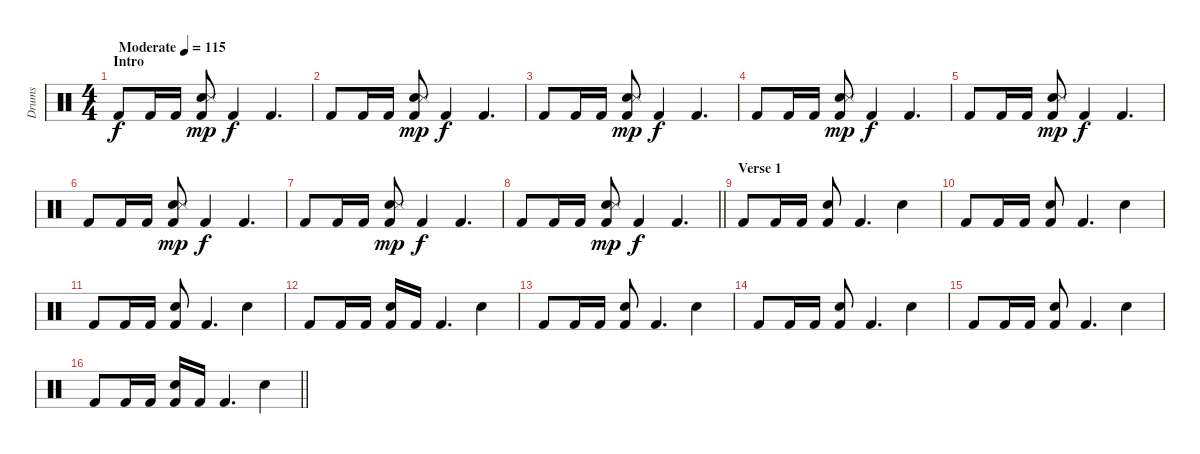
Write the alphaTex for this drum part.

\track ("Drums" "Drums") {instrument percussion}
\staff {score}
\articulation defaults
\ts (4 4)
\section ("" "Intro")
\tempo (115 "Moderate")
\clef neutral
\ks c "Kick (hit) 2".8{dy f} "Kick (hit) 2".16 "Kick (hit) 2".16
("Hand Clap (hit)" "Snare (side stick) 3" "Kick (hit) 2").8{dy mp} "Kick (hit) 2".4{dy f} "Kick (hit) 2".4{d} |
"Kick (hit) 2".8 "Kick (hit) 2".16 "Kick (hit) 2".16 ("Hand Clap (hit)" "Snare (side stick) 3" "Kick (hit) 2").8{dy mp} "Kick (hit) 2".4{dy f} "Kick (hit) 2".4{d} |
"Kick (hit) 2".8 "Kick (hit) 2".16 "Kick (hit) 2".16 ("Hand Clap (hit)" "Snare (side stick) 3" "Kick (hit) 2").8{dy mp} "Kick (hit) 2".4{dy f} "Kick (hit) 2".4{d} |
"Kick (hit) 2".8 "Kick (hit) 2".16 "Kick (hit) 2".16 ("Hand Clap (hit)" "Snare (side stick) 3" "Kick (hit) 2").8{dy mp} "Kick (hit) 2".4{dy f} "Kick (hit) 2".4{d} |
"Kick (hit) 2".8 "Kick (hit) 2".16 "Kick (hit) 2".16 ("Hand Clap (hit)" "Snare (side stick) 3" "Kick (hit) 2").8{dy mp} "Kick (hit) 2".4{dy f} "Kick (hit) 2".4{d} |
"Kick (hit) 2".8 "Kick (hit) 2".16 "Kick (hit) 2".16 ("Hand Clap (hit)" "Snare (side stick) 3" "Kick (hit) 2").8{dy mp} "Kick (hit) 2".4{dy f} "Kick (hit) 2".4{d} |
"Kick (hit) 2".8 "Kick (hit) 2".16 "Kick (hit) 2".16 ("Hand Clap (hit)" "Snare (side stick) 3" "Kick (hit) 2").8{dy mp} "Kick (hit) 2".4{dy f} "Kick (hit) 2".4{d} |
\barLineRight lightlight "Kick (hit) 2".8 "Kick (hit) 2".16 "Kick (hit) 2".16
("Hand Clap (hit)" "Snare (side stick) 3" "Kick (hit) 2").8{dy mp} "Kick (hit) 2".4{dy f} "Kick (hit) 2".4{d} |
\section ("" "Verse 1")
"Kick (hit) 2".8 "Kick (hit) 2".16 "Kick (hit) 2".16 ("Snare (hit) 2" "Kick (hit) 2").8 "Kick (hit) 2".4{d} "Snare (hit) 2".4 |
"Kick (hit) 2".8 "Kick (hit) 2".16 "Kick (hit) 2".16 ("Snare (hit) 2" "Kick (hit) 2").8 "Kick (hit) 2".4{d} "Snare (hit) 2".4 |
"Kick (hit) 2".8 "Kick (hit) 2".16 "Kick (hit) 2".16 ("Snare (hit) 2" "Kick (hit) 2").8 "Kick (hit) 2".4{d} "Snare (hit) 2".4 |
"Kick (hit) 2".8 "Kick (hit) 2".16 "Kick (hit) 2".16 ("Snare (hit) 2" "Kick (hit) 2").16 "Kick (hit) 2".16 "Kick (hit) 2".4{d} "Snare (hit) 2".4 |
"Kick (hit) 2".8 "Kick (hit) 2".16 "Kick (hit) 2".16 ("Snare (hit) 2" "Kick (hit) 2").8 "Kick (hit) 2".4{d} "Snare (hit) 2".4 |
"Kick (hit) 2".8 "Kick (hit) 2".16 "Kick (hit) 2".16 ("Snare (hit) 2" "Kick (hit) 2").8 "Kick (hit) 2".4{d} "Snare (hit) 2".4 |
"Kick (hit) 2".8 "Kick (hit) 2".16 "Kick (hit) 2".16 ("Snare (hit) 2" "Kick (hit) 2").8 "Kick (hit) 2".4{d} "Snare (hit) 2".4 |
\barLineRight lightlight "Kick (hit) 2".8 "Kick (hit) 2".16 "Kick (hit) 2".16
("Snare (hit) 2" "Kick (hit) 2").16 "Kick (hit) 2".16 "Kick (hit) 2".4{d} "Snare (hit) 2".4
